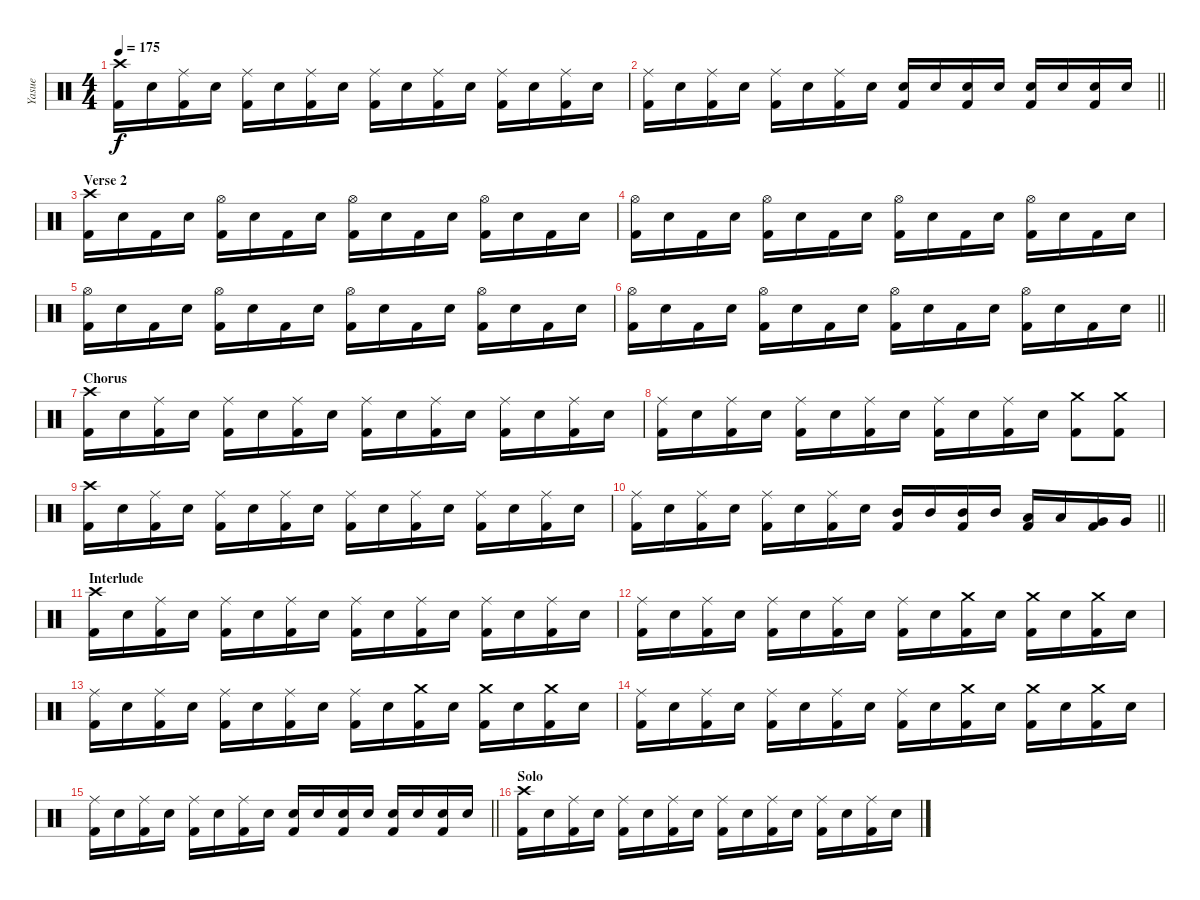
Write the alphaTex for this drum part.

\track ("Yasue" "Yasue") {instrument percussion}
\staff {score}
\articulation defaults
\ts (4 4)
\tempo 175
\clef neutral
\ks c
("Crash high (hit)" "Kick (hit) 2").16{dy f} "Electric Snare (hit)".16 ("Ride (middle)" "Kick (hit) 2").16 "Electric Snare (hit)".16 ("Ride (middle)" "Kick (hit) 2").16 "Electric Snare (hit)".16 ("Ride (middle)" "Kick (hit) 2").16 "Electric Snare (hit)".16 ("Ride (middle)" "Kick (hit) 2").16 "Electric Snare (hit)".16 ("Ride (middle)" "Kick (hit) 2").16 "Electric Snare (hit)".16 ("Ride (middle)" "Kick (hit) 2").16 "Electric Snare (hit)".16 ("Ride (middle)" "Kick (hit) 2").16 "Electric Snare (hit)".16 |
\barLineRight lightlight
("Ride (middle)" "Kick (hit) 2").16 "Electric Snare (hit)".16 ("Ride (middle)" "Kick (hit) 2").16 "Electric Snare (hit)".16 ("Ride (middle)" "Kick (hit) 2").16 "Electric Snare (hit)".16 ("Ride (middle)" "Kick (hit) 2").16 "Electric Snare (hit)".16 ("Electric Snare (hit)" "Kick (hit) 2").16 "Electric Snare (hit)".16 ("Electric Snare (hit)" "Kick (hit) 2").16 "Electric Snare (hit)".16 ("Electric Snare (hit)" "Kick (hit) 2").16 "Electric Snare (hit)".16 ("Electric Snare (hit)" "Kick (hit) 2").16 "Electric Snare (hit)".16 |
\section ("" "Verse 2")
("Crash high (hit)" "Kick (hit) 2").16 "Electric Snare (hit)".16 "Kick (hit) 2".16 "Electric Snare (hit)".16 ("Hi-Hat (open)" "Kick (hit) 2").16 "Electric Snare (hit)".16 "Kick (hit) 2".16 "Electric Snare (hit)".16 ("Hi-Hat (open)" "Kick (hit) 2").16 "Electric Snare (hit)".16 "Kick (hit) 2".16 "Electric Snare (hit)".16 ("Hi-Hat (open)" "Kick (hit) 2").16 "Electric Snare (hit)".16 "Kick (hit) 2".16 "Electric Snare (hit)".16 |
("Hi-Hat (open)" "Kick (hit) 2").16 "Electric Snare (hit)".16 "Kick (hit) 2".16 "Electric Snare (hit)".16 ("Hi-Hat (open)" "Kick (hit) 2").16 "Electric Snare (hit)".16 "Kick (hit) 2".16 "Electric Snare (hit)".16 ("Hi-Hat (open)" "Kick (hit) 2").16 "Electric Snare (hit)".16 "Kick (hit) 2".16 "Electric Snare (hit)".16 ("Hi-Hat (open)" "Kick (hit) 2").16 "Electric Snare (hit)".16 "Kick (hit) 2".16 "Electric Snare (hit)".16 |
("Hi-Hat (open)" "Kick (hit) 2").16 "Electric Snare (hit)".16 "Kick (hit) 2".16 "Electric Snare (hit)".16 ("Hi-Hat (open)" "Kick (hit) 2").16 "Electric Snare (hit)".16 "Kick (hit) 2".16 "Electric Snare (hit)".16 ("Hi-Hat (open)" "Kick (hit) 2").16 "Electric Snare (hit)".16 "Kick (hit) 2".16 "Electric Snare (hit)".16 ("Hi-Hat (open)" "Kick (hit) 2").16 "Electric Snare (hit)".16 "Kick (hit) 2".16 "Electric Snare (hit)".16 |
\barLineRight lightlight
("Hi-Hat (open)" "Kick (hit) 2").16 "Electric Snare (hit)".16 "Kick (hit) 2".16 "Electric Snare (hit)".16 ("Hi-Hat (open)" "Kick (hit) 2").16 "Electric Snare (hit)".16 "Kick (hit) 2".16 "Electric Snare (hit)".16 ("Hi-Hat (open)" "Kick (hit) 2").16 "Electric Snare (hit)".16 "Kick (hit) 2".16 "Electric Snare (hit)".16 ("Hi-Hat (open)" "Kick (hit) 2").16 "Electric Snare (hit)".16 "Kick (hit) 2".16 "Electric Snare (hit)".16 |
\section ("" "Chorus")
("Crash high (hit)" "Kick (hit) 2").16 "Electric Snare (hit)".16 ("Ride (middle)" "Kick (hit) 2").16 "Electric Snare (hit)".16 ("Ride (middle)" "Kick (hit) 2").16 "Electric Snare (hit)".16 ("Ride (middle)" "Kick (hit) 2").16 "Electric Snare (hit)".16 ("Ride (middle)" "Kick (hit) 2").16 "Electric Snare (hit)".16 ("Ride (middle)" "Kick (hit) 2").16 "Electric Snare (hit)".16 ("Ride (middle)" "Kick (hit) 2").16 "Electric Snare (hit)".16 ("Ride (middle)" "Kick (hit) 2").16 "Electric Snare (hit)".16 |
("Ride (middle)" "Kick (hit) 2").16 "Electric Snare (hit)".16 ("Ride (middle)" "Kick (hit) 2").16 "Electric Snare (hit)".16 ("Ride (middle)" "Kick (hit) 2").16 "Electric Snare (hit)".16 ("Ride (middle)" "Kick (hit) 2").16 "Electric Snare (hit)".16 ("Ride (middle)" "Kick (hit) 2").16 "Electric Snare (hit)".16 ("Ride (middle)" "Kick (hit) 2").16 "Electric Snare (hit)".16 ("Crash medium (hit)" "Kick (hit) 2").8 ("Crash medium (hit)" "Kick (hit) 2").8 |
("Crash high (hit)" "Kick (hit) 2").16 "Electric Snare (hit)".16 ("Ride (middle)" "Kick (hit) 2").16 "Electric Snare (hit)".16 ("Ride (middle)" "Kick (hit) 2").16 "Electric Snare (hit)".16 ("Ride (middle)" "Kick (hit) 2").16 "Electric Snare (hit)".16 ("Ride (middle)" "Kick (hit) 2").16 "Electric Snare (hit)".16 ("Ride (middle)" "Kick (hit) 2").16 "Electric Snare (hit)".16 ("Ride (middle)" "Kick (hit) 2").16 "Electric Snare (hit)".16 ("Ride (middle)" "Kick (hit) 2").16 "Electric Snare (hit)".16 |
\barLineRight lightlight
("Ride (middle)" "Kick (hit) 2").16 "Electric Snare (hit)".16 ("Ride (middle)" "Kick (hit) 2").16 "Electric Snare (hit)".16 ("Ride (middle)" "Kick (hit) 2").16 "Electric Snare (hit)".16 ("Ride (middle)" "Kick (hit) 2").16 "Electric Snare (hit)".16 ("Mid Tom (hit)" "Kick (hit) 2").16 "Mid Tom (hit)".16 ("Mid Tom (hit)" "Kick (hit) 2").16 "Mid Tom (hit)".16 ("Low Tom (hit)" "Kick (hit) 2").16 "Low Tom (hit)".16 ("Very Low Tom (hit)" "Kick (hit) 2").16 "Very Low Tom (hit)".16 |
\section ("" "Interlude")
("Crash high (hit)" "Kick (hit) 2").16 "Electric Snare (hit)".16 ("Ride (middle)" "Kick (hit) 2").16 "Electric Snare (hit)".16 ("Ride (middle)" "Kick (hit) 2").16 "Electric Snare (hit)".16 ("Ride (middle)" "Kick (hit) 2").16 "Electric Snare (hit)".16 ("Ride (middle)" "Kick (hit) 2").16 "Electric Snare (hit)".16 ("Ride (middle)" "Kick (hit) 2").16 "Electric Snare (hit)".16 ("Ride (middle)" "Kick (hit) 2").16 "Electric Snare (hit)".16 ("Ride (middle)" "Kick (hit) 2").16 "Electric Snare (hit)".16 |
("Ride (middle)" "Kick (hit) 2").16 "Electric Snare (hit)".16 ("Ride (middle)" "Kick (hit) 2").16 "Electric Snare (hit)".16 ("Ride (middle)" "Kick (hit) 2").16 "Electric Snare (hit)".16 ("Ride (middle)" "Kick (hit) 2").16 "Electric Snare (hit)".16 ("Ride (middle)" "Kick (hit) 2").16 "Electric Snare (hit)".16 ("Crash medium (hit)" "Kick (hit) 2").16 "Electric Snare (hit)".16 ("Crash medium (hit)" "Kick (hit) 2").16 "Electric Snare (hit)".16 ("Crash medium (hit)" "Kick (hit) 2").16 "Electric Snare (hit)".16 |
("Ride (middle)" "Kick (hit) 2").16 "Electric Snare (hit)".16 ("Ride (middle)" "Kick (hit) 2").16 "Electric Snare (hit)".16 ("Ride (middle)" "Kick (hit) 2").16 "Electric Snare (hit)".16 ("Ride (middle)" "Kick (hit) 2").16 "Electric Snare (hit)".16 ("Ride (middle)" "Kick (hit) 2").16 "Electric Snare (hit)".16 ("Crash medium (hit)" "Kick (hit) 2").16 "Electric Snare (hit)".16 ("Crash medium (hit)" "Kick (hit) 2").16 "Electric Snare (hit)".16 ("Crash medium (hit)" "Kick (hit) 2").16 "Electric Snare (hit)".16 |
("Ride (middle)" "Kick (hit) 2").16 "Electric Snare (hit)".16 ("Ride (middle)" "Kick (hit) 2").16 "Electric Snare (hit)".16 ("Ride (middle)" "Kick (hit) 2").16 "Electric Snare (hit)".16 ("Ride (middle)" "Kick (hit) 2").16 "Electric Snare (hit)".16 ("Ride (middle)" "Kick (hit) 2").16 "Electric Snare (hit)".16 ("Crash medium (hit)" "Kick (hit) 2").16 "Electric Snare (hit)".16 ("Crash medium (hit)" "Kick (hit) 2").16 "Electric Snare (hit)".16 ("Crash medium (hit)" "Kick (hit) 2").16 "Electric Snare (hit)".16 |
\barLineRight lightlight
("Ride (middle)" "Kick (hit) 2").16 "Electric Snare (hit)".16 ("Ride (middle)" "Kick (hit) 2").16 "Electric Snare (hit)".16 ("Ride (middle)" "Kick (hit) 2").16 "Electric Snare (hit)".16 ("Ride (middle)" "Kick (hit) 2").16 "Electric Snare (hit)".16 ("Electric Snare (hit)" "Kick (hit) 2").16 "Electric Snare (hit)".16 ("Electric Snare (hit)" "Kick (hit) 2").16 "Electric Snare (hit)".16 ("Electric Snare (hit)" "Kick (hit) 2").16 "Electric Snare (hit)".16 ("Electric Snare (hit)" "Kick (hit) 2").16 "Electric Snare (hit)".16 |
\section ("" "Solo")
("Crash high (hit)" "Kick (hit) 2").16 "Electric Snare (hit)".16 ("Ride (middle)" "Kick (hit) 2").16 "Electric Snare (hit)".16 ("Ride (middle)" "Kick (hit) 2").16 "Electric Snare (hit)".16 ("Ride (middle)" "Kick (hit) 2").16 "Electric Snare (hit)".16 ("Ride (middle)" "Kick (hit) 2").16 "Electric Snare (hit)".16 ("Ride (middle)" "Kick (hit) 2").16 "Electric Snare (hit)".16 ("Ride (middle)" "Kick (hit) 2").16 "Electric Snare (hit)".16 ("Ride (middle)" "Kick (hit) 2").16 "Electric Snare (hit)".16
